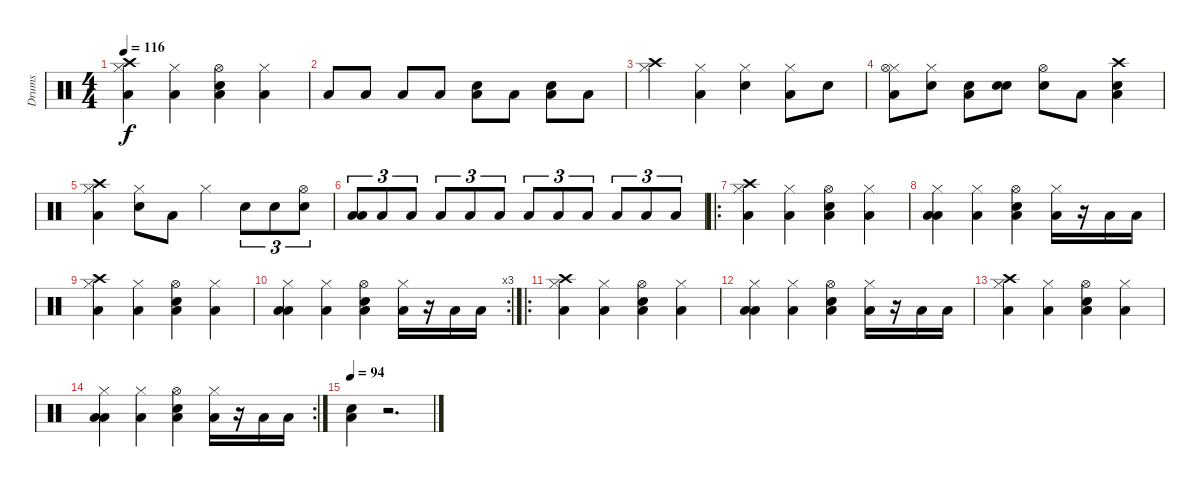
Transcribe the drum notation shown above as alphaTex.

\track ("Drums" "Drums") {instrument percussion}
\staff {score}
\articulation defaults
\ts (4 4)
\tempo 116
\clef neutral
\ks c
("Crash high (hit)" "Hi-Hat (closed)" "Low Floor Tom (hit)").4{dy f} ("Hi-Hat (closed)" "Low Floor Tom (hit)").4 ("Snare (hit) 2" "Hi-Hat (open)" "Low Tom (hit)").4 ("Low Floor Tom (hit)" "Hi-Hat (closed)").4 |
"Low Tom (hit)".8 "Low Tom (hit)".8 "Low Tom (hit)".8 "Low Tom (hit)".8 ("Electric Snare (hit)" "Low Tom (hit)").8 "Low Floor Tom (hit)".8 ("Electric Snare (hit)" "Low Tom (hit)").8 "Low Floor Tom (hit)".8 |
("Crash high (hit)" "Hi-Hat (closed)").4 ("Hi-Hat (closed)" "Low Floor Tom (hit)").4 ("Hi-Hat (closed)" "Snare (hit) 2").4 ("Hi-Hat (closed)" "Low Floor Tom (hit)").8 "Snare (hit) 2".8 |
("Hi-Hat (closed)" "Low Floor Tom (hit)" "Hi-Hat (open)").8 ("Hi-Hat (closed)" "Snare (hit) 2").8 ("Electric Snare (hit)" "Low Floor Tom (hit)").8 ("Electric Snare (hit)" "Snare (hit) 2").8 ("Hi-Hat (open)" "Snare (hit) 2").8 "Low Floor Tom (hit)".8 ("Crash high (hit)" "Snare (hit) 2" "Low Floor Tom (hit)").4 |
("Crash high (hit)" "Hi-Hat (closed)" "Low Floor Tom (hit)").4 ("Hi-Hat (closed)" "Snare (hit) 2").8 "Low Floor Tom (hit)".8 "Hi-Hat (closed)".4 "Snare (hit) 2".8{tu (3 2)} "Snare (hit) 2".8{tu (3 2)} ("Snare (hit) 2" "Hi-Hat (open)").8{tu (3 2)} |
("Low Tom (hit)" "Low Floor Tom (hit)").8{tu (3 2)} "Low Tom (hit)".8{tu (3 2)} "Low Tom (hit)".8{tu (3 2)} "Low Tom (hit)".8{tu (3 2)} "Low Tom (hit)".8{tu (3 2)} "Low Tom (hit)".8{tu (3 2)} "Low Tom (hit)".8{tu (3 2)} "Low Tom (hit)".8{tu (3 2)} "Low Tom (hit)".8{tu (3 2)} "Low Tom (hit)".8{tu (3 2)} "Low Tom (hit)".8{tu (3 2)} "Low Tom (hit)".8{tu (3 2)} |
\ro
("Crash high (hit)" "Hi-Hat (closed)" "Low Floor Tom (hit)").4 ("Hi-Hat (closed)" "Low Floor Tom (hit)").4 ("Snare (hit) 2" "Hi-Hat (open)" "Low Tom (hit)").4 ("Low Floor Tom (hit)" "Hi-Hat (closed)").4 |
("Low Tom (hit)" "Hi-Hat (closed)" "Low Floor Tom (hit)").4 ("Hi-Hat (closed)" "Low Floor Tom (hit)").4 ("Snare (hit) 2" "Hi-Hat (open)" "Low Tom (hit)").4 ("Low Floor Tom (hit)" "Hi-Hat (closed)").16 r.16 "Low Tom (hit)".16 "Low Tom (hit)".16 |
("Crash high (hit)" "Hi-Hat (closed)" "Low Floor Tom (hit)").4 ("Hi-Hat (closed)" "Low Floor Tom (hit)").4 ("Snare (hit) 2" "Hi-Hat (open)" "Low Tom (hit)").4 ("Low Floor Tom (hit)" "Hi-Hat (closed)").4 |
\rc 3
("Low Tom (hit)" "Hi-Hat (closed)" "Low Floor Tom (hit)").4 ("Hi-Hat (closed)" "Low Floor Tom (hit)").4 ("Snare (hit) 2" "Hi-Hat (open)" "Low Tom (hit)").4 ("Low Floor Tom (hit)" "Hi-Hat (closed)").16 r.16 "Low Floor Tom (hit)".16 "Low Floor Tom (hit)".16 |
\ro
("Crash high (hit)" "Hi-Hat (closed)" "Low Floor Tom (hit)").4 ("Hi-Hat (closed)" "Low Floor Tom (hit)").4 ("Snare (hit) 2" "Hi-Hat (open)" "Low Tom (hit)").4 ("Low Floor Tom (hit)" "Hi-Hat (closed)").4 |
("Low Tom (hit)" "Hi-Hat (closed)" "Low Floor Tom (hit)").4 ("Hi-Hat (closed)" "Low Floor Tom (hit)").4 ("Snare (hit) 2" "Hi-Hat (open)" "Low Tom (hit)").4 ("Low Floor Tom (hit)" "Hi-Hat (closed)").16 r.16 "Low Tom (hit)".16 "Low Tom (hit)".16 |
("Crash high (hit)" "Hi-Hat (closed)" "Low Floor Tom (hit)").4 ("Hi-Hat (closed)" "Low Floor Tom (hit)").4 ("Snare (hit) 2" "Hi-Hat (open)" "Low Tom (hit)").4 ("Low Floor Tom (hit)" "Hi-Hat (closed)").4 |
\rc 2
("Low Tom (hit)" "Hi-Hat (closed)" "Low Floor Tom (hit)").4 ("Hi-Hat (closed)" "Low Floor Tom (hit)").4 ("Snare (hit) 2" "Hi-Hat (open)" "Low Tom (hit)").4 ("Low Floor Tom (hit)" "Hi-Hat (closed)").16 r.16 "Low Floor Tom (hit)".16 "Low Floor Tom (hit)".16 |
\tempo 94
("Low Floor Tom (hit)" "Snare (hit) 2").4 r.2{d}
